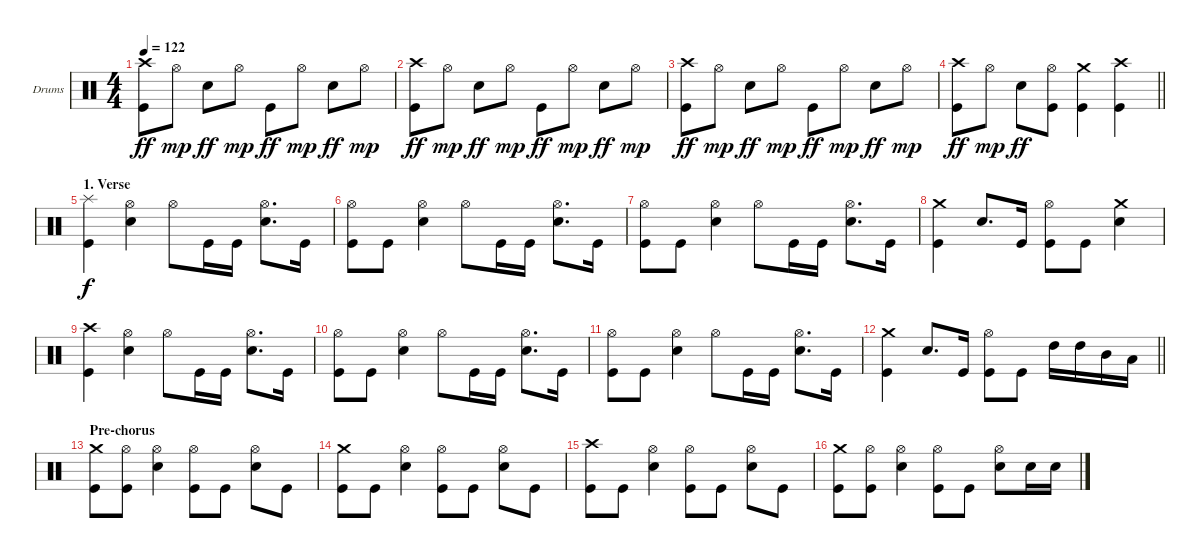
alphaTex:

\bracketExtendMode groupsimilarinstruments
\firstSystemTrackNameOrientation horizontal
\otherSystemsTrackNameOrientation horizontal
\track ("Brent Fitz" "Drums") {instrument percussion}
\staff {score}
\articulation defaults
\ts (4 4)
\tempo 122
\clef neutral
\ks c
("Kick (hit)" "Crash high (hit)").8{dy ff} "Hi-Hat (open)".8{dy mp} "Snare (hit) 2".8{dy ff} "Hi-Hat (open)".8{dy mp} "Kick (hit)".8{dy ff} "Hi-Hat (open)".8{dy mp} "Snare (hit) 2".8{dy ff} "Hi-Hat (open)".8{dy mp} |
("Kick (hit)" "Crash high (hit)").8{dy ff} "Hi-Hat (open)".8{dy mp} "Snare (hit) 2".8{dy ff} "Hi-Hat (open)".8{dy mp} "Kick (hit)".8{dy ff} "Hi-Hat (open)".8{dy mp} "Snare (hit) 2".8{dy ff} "Hi-Hat (open)".8{dy mp} |
("Kick (hit)" "Crash high (hit)").8{dy ff} "Hi-Hat (open)".8{dy mp} "Snare (hit) 2".8{dy ff} "Hi-Hat (open)".8{dy mp} "Kick (hit)".8{dy ff} "Hi-Hat (open)".8{dy mp} "Snare (hit) 2".8{dy ff} "Hi-Hat (open)".8{dy mp} |
\barLineRight lightlight
("Kick (hit)" "Crash high (hit)").8{dy ff} "Hi-Hat (open)".8{dy mp} "Snare (hit) 2".8{dy ff} ("Hi-Hat (open)" "Kick (hit)").8 ("Kick (hit)" "Crash medium (hit)").4 ("Kick (hit)" "Crash high (hit)").4 |
\section ("" "1. Verse")
("Kick (hit)" "Splash (hit)").4{dy f} ("Snare (hit) 2" "Hi-Hat (open)").4 "Hi-Hat (open)".8 "Kick (hit)".16 "Kick (hit)".16 ("Snare (hit) 2" "Hi-Hat (open)").8{d} "Kick (hit)".16 |
("Kick (hit)" "Hi-Hat (open)").8 "Kick (hit)".8 ("Snare (hit) 2" "Hi-Hat (open)").4 "Hi-Hat (open)".8 "Kick (hit)".16 "Kick (hit)".16 ("Snare (hit) 2" "Hi-Hat (open)").8{d} "Kick (hit)".16 |
("Kick (hit)" "Hi-Hat (open)").8 "Kick (hit)".8 ("Snare (hit) 2" "Hi-Hat (open)").4 "Hi-Hat (open)".8 "Kick (hit)".16 "Kick (hit)".16 ("Snare (hit) 2" "Hi-Hat (open)").8{d} "Kick (hit)".16 |
("Kick (hit)" "Crash medium (hit)").4 "Snare (hit) 2".8{d} "Kick (hit)".16 ("Kick (hit)" "Hi-Hat (open)").8 "Kick (hit)".8 ("Snare (hit) 2" "Crash medium (hit)").4 |
("Kick (hit)" "Crash high (hit)").4 ("Snare (hit) 2" "Hi-Hat (open)").4 "Hi-Hat (open)".8 "Kick (hit)".16 "Kick (hit)".16 ("Snare (hit) 2" "Hi-Hat (open)").8{d} "Kick (hit)".16 |
("Kick (hit)" "Hi-Hat (open)").8 "Kick (hit)".8 ("Snare (hit) 2" "Hi-Hat (open)").4 "Hi-Hat (open)".8 "Kick (hit)".16 "Kick (hit)".16 ("Snare (hit) 2" "Hi-Hat (open)").8{d} "Kick (hit)".16 |
("Kick (hit)" "Hi-Hat (open)").8 "Kick (hit)".8 ("Snare (hit) 2" "Hi-Hat (open)").4 "Hi-Hat (open)".8 "Kick (hit)".16 "Kick (hit)".16 ("Snare (hit) 2" "Hi-Hat (open)").8{d} "Kick (hit)".16 |
\barLineRight lightlight
("Kick (hit)" "Crash medium (hit)").4 "Snare (hit) 2".8{d} "Kick (hit)".16 ("Kick (hit)" "Hi-Hat (open)").8 "Kick (hit)".8 "High Tom (hit)".16 "High Tom (hit)".16 "Mid Tom (hit)".16 "Low Tom (hit)".16 |
\section ("" "Pre-chorus")
("Kick (hit)" "Crash medium (hit)").8 ("Kick (hit)" "Hi-Hat (open)").8 ("Snare (hit) 2" "Hi-Hat (open)").4 ("Kick (hit)" "Hi-Hat (open)").8 "Kick (hit)".8 ("Snare (hit) 2" "Hi-Hat (open)").8 "Kick (hit)".8 |
("Kick (hit)" "Crash medium (hit)").8 "Kick (hit)".8 ("Snare (hit) 2" "Hi-Hat (open)").4 ("Kick (hit)" "Hi-Hat (open)").8 "Kick (hit)".8 ("Snare (hit) 2" "Hi-Hat (open)").8 "Kick (hit)".8 |
("Kick (hit)" "Crash high (hit)").8 "Kick (hit)".8 ("Snare (hit) 2" "Hi-Hat (open)").4 ("Kick (hit)" "Hi-Hat (open)").8 "Kick (hit)".8 ("Snare (hit) 2" "Hi-Hat (open)").8 "Kick (hit)".8 |
("Kick (hit)" "Crash medium (hit)").8 ("Kick (hit)" "Hi-Hat (open)").8 ("Snare (hit) 2" "Hi-Hat (open)").4 ("Kick (hit)" "Hi-Hat (open)").8 "Kick (hit)".8 ("Snare (hit) 2" "Hi-Hat (open)").8 "Snare (hit) 2".16 "Snare (hit) 2".16
